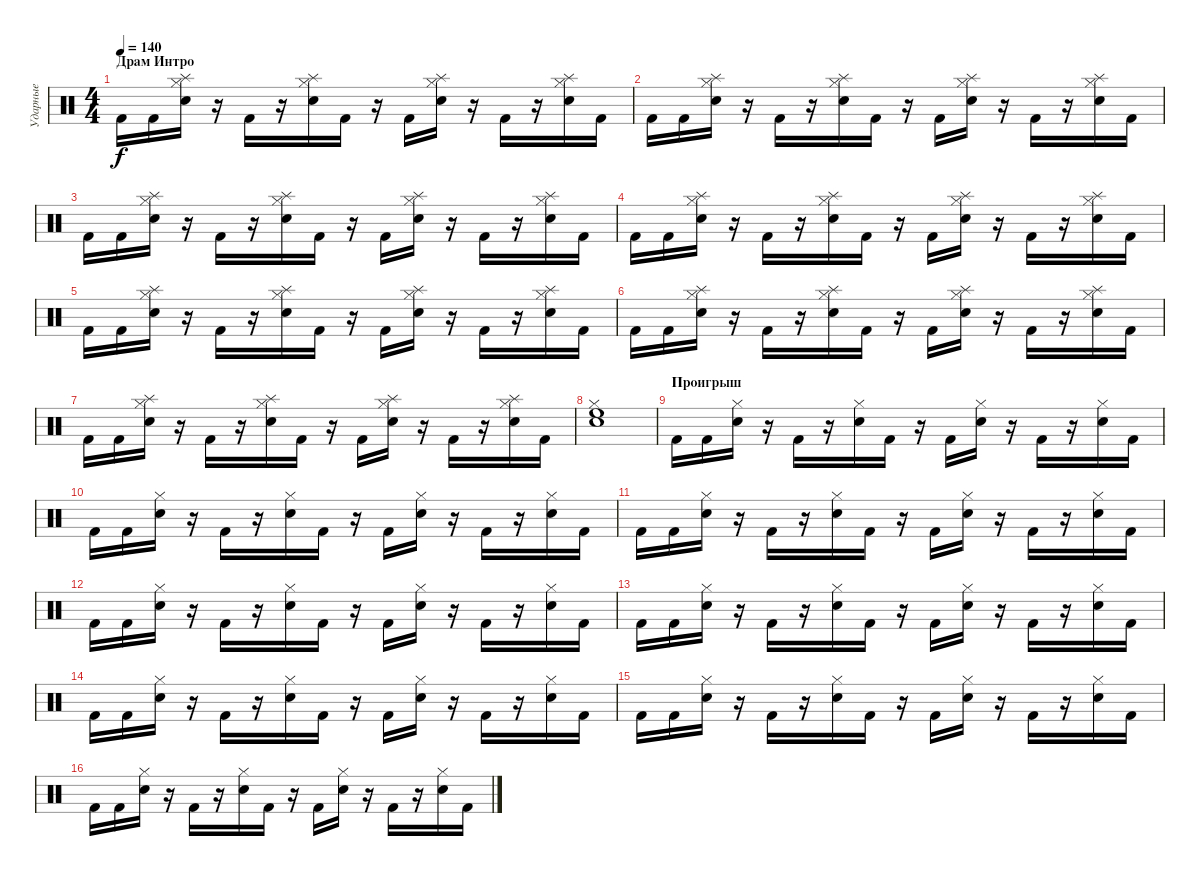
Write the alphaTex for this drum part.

\track ("Ударные" "Ударные") {instrument percussion}
\staff {score}
\articulation defaults
\ts (4 4)
\section ("" "Драм Интро")
\tempo 140
\clef neutral
\ks c "Kick (hit) 2".16{dy f volume 14} "Kick (hit) 2".16
("Snare (hit) 2" "Hi-Hat (closed)" "Splash (hit)").16 r.16 "Kick (hit) 2".16 r.16 ("Snare (hit) 2" "Hi-Hat (closed)" "Splash (hit)").16 "Kick (hit) 2".16 r.16 "Kick (hit) 2".16 ("Snare (hit) 2" "Hi-Hat (closed)" "Splash (hit)").16 r.16 "Kick (hit) 2".16 r.16 ("Snare (hit) 2" "Hi-Hat (closed)" "Splash (hit)").16 "Kick (hit) 2".16 |
"Kick (hit) 2".16{volume 14} "Kick (hit) 2".16 ("Snare (hit) 2" "Hi-Hat (closed)" "Splash (hit)").16 r.16 "Kick (hit) 2".16 r.16 ("Snare (hit) 2" "Hi-Hat (closed)" "Splash (hit)").16 "Kick (hit) 2".16 r.16 "Kick (hit) 2".16 ("Snare (hit) 2" "Hi-Hat (closed)" "Splash (hit)").16 r.16 "Kick (hit) 2".16 r.16 ("Snare (hit) 2" "Hi-Hat (closed)" "Splash (hit)").16 "Kick (hit) 2".16 |
"Kick (hit) 2".16{volume 14} "Kick (hit) 2".16 ("Snare (hit) 2" "Hi-Hat (closed)" "Splash (hit)").16 r.16 "Kick (hit) 2".16 r.16 ("Snare (hit) 2" "Hi-Hat (closed)" "Splash (hit)").16 "Kick (hit) 2".16 r.16 "Kick (hit) 2".16 ("Snare (hit) 2" "Hi-Hat (closed)" "Splash (hit)").16 r.16 "Kick (hit) 2".16 r.16 ("Snare (hit) 2" "Hi-Hat (closed)" "Splash (hit)").16 "Kick (hit) 2".16 |
"Kick (hit) 2".16{volume 14} "Kick (hit) 2".16 ("Snare (hit) 2" "Hi-Hat (closed)" "Splash (hit)").16 r.16 "Kick (hit) 2".16 r.16 ("Snare (hit) 2" "Hi-Hat (closed)" "Splash (hit)").16 "Kick (hit) 2".16 r.16 "Kick (hit) 2".16 ("Snare (hit) 2" "Hi-Hat (closed)" "Splash (hit)").16 r.16 "Kick (hit) 2".16 r.16 ("Snare (hit) 2" "Hi-Hat (closed)" "Splash (hit)").16 "Kick (hit) 2".16 |
"Kick (hit) 2".16{volume 14} "Kick (hit) 2".16 ("Snare (hit) 2" "Hi-Hat (closed)" "Splash (hit)").16 r.16 "Kick (hit) 2".16 r.16 ("Snare (hit) 2" "Hi-Hat (closed)" "Splash (hit)").16 "Kick (hit) 2".16 r.16 "Kick (hit) 2".16 ("Snare (hit) 2" "Hi-Hat (closed)" "Splash (hit)").16 r.16 "Kick (hit) 2".16 r.16 ("Snare (hit) 2" "Hi-Hat (closed)" "Splash (hit)").16 "Kick (hit) 2".16 |
"Kick (hit) 2".16{volume 14} "Kick (hit) 2".16 ("Snare (hit) 2" "Hi-Hat (closed)" "Splash (hit)").16 r.16 "Kick (hit) 2".16 r.16 ("Snare (hit) 2" "Hi-Hat (closed)" "Splash (hit)").16 "Kick (hit) 2".16 r.16 "Kick (hit) 2".16 ("Snare (hit) 2" "Hi-Hat (closed)" "Splash (hit)").16 r.16 "Kick (hit) 2".16 r.16 ("Snare (hit) 2" "Hi-Hat (closed)" "Splash (hit)").16 "Kick (hit) 2".16 |
"Kick (hit) 2".16{volume 14} "Kick (hit) 2".16 ("Snare (hit) 2" "Hi-Hat (closed)" "Splash (hit)").16 r.16 "Kick (hit) 2".16 r.16 ("Snare (hit) 2" "Hi-Hat (closed)" "Splash (hit)").16 "Kick (hit) 2".16 r.16 "Kick (hit) 2".16 ("Snare (hit) 2" "Hi-Hat (closed)" "Splash (hit)").16 r.16 "Kick (hit) 2".16 r.16 ("Snare (hit) 2" "Hi-Hat (closed)" "Splash (hit)").16 "Kick (hit) 2".16 |
("High Floor Tom (hit)" "Snare (hit) 2" "Hi-Hat (closed)").1 |
\section ("" "Проигрыш")
"Kick (hit) 2".16{volume 16} "Kick (hit) 2".16 ("Snare (hit) 2" "Hi-Hat (closed)").16 r.16 "Kick (hit) 2".16 r.16 ("Snare (hit) 2" "Hi-Hat (closed)").16 "Kick (hit) 2".16 r.16 "Kick (hit) 2".16 ("Snare (hit) 2" "Hi-Hat (closed)").16 r.16 "Kick (hit) 2".16 r.16 ("Snare (hit) 2" "Hi-Hat (closed)").16 "Kick (hit) 2".16 |
"Kick (hit) 2".16 "Kick (hit) 2".16 ("Snare (hit) 2" "Hi-Hat (closed)").16 r.16 "Kick (hit) 2".16 r.16 ("Snare (hit) 2" "Hi-Hat (closed)").16 "Kick (hit) 2".16 r.16 "Kick (hit) 2".16 ("Snare (hit) 2" "Hi-Hat (closed)").16 r.16 "Kick (hit) 2".16 r.16 ("Snare (hit) 2" "Hi-Hat (closed)").16 "Kick (hit) 2".16 |
"Kick (hit) 2".16 "Kick (hit) 2".16 ("Snare (hit) 2" "Hi-Hat (closed)").16 r.16 "Kick (hit) 2".16 r.16 ("Snare (hit) 2" "Hi-Hat (closed)").16 "Kick (hit) 2".16 r.16 "Kick (hit) 2".16 ("Snare (hit) 2" "Hi-Hat (closed)").16 r.16 "Kick (hit) 2".16 r.16 ("Snare (hit) 2" "Hi-Hat (closed)").16 "Kick (hit) 2".16 |
"Kick (hit) 2".16 "Kick (hit) 2".16 ("Snare (hit) 2" "Hi-Hat (closed)").16 r.16 "Kick (hit) 2".16 r.16 ("Snare (hit) 2" "Hi-Hat (closed)").16 "Kick (hit) 2".16 r.16 "Kick (hit) 2".16 ("Snare (hit) 2" "Hi-Hat (closed)").16 r.16 "Kick (hit) 2".16 r.16 ("Snare (hit) 2" "Hi-Hat (closed)").16 "Kick (hit) 2".16 |
"Kick (hit) 2".16 "Kick (hit) 2".16 ("Snare (hit) 2" "Hi-Hat (closed)").16 r.16 "Kick (hit) 2".16 r.16 ("Snare (hit) 2" "Hi-Hat (closed)").16 "Kick (hit) 2".16 r.16 "Kick (hit) 2".16 ("Snare (hit) 2" "Hi-Hat (closed)").16 r.16 "Kick (hit) 2".16 r.16 ("Snare (hit) 2" "Hi-Hat (closed)").16 "Kick (hit) 2".16 |
"Kick (hit) 2".16 "Kick (hit) 2".16 ("Snare (hit) 2" "Hi-Hat (closed)").16 r.16 "Kick (hit) 2".16 r.16 ("Snare (hit) 2" "Hi-Hat (closed)").16 "Kick (hit) 2".16 r.16 "Kick (hit) 2".16 ("Snare (hit) 2" "Hi-Hat (closed)").16 r.16 "Kick (hit) 2".16 r.16 ("Snare (hit) 2" "Hi-Hat (closed)").16 "Kick (hit) 2".16 |
"Kick (hit) 2".16 "Kick (hit) 2".16 ("Snare (hit) 2" "Hi-Hat (closed)").16 r.16 "Kick (hit) 2".16 r.16 ("Snare (hit) 2" "Hi-Hat (closed)").16 "Kick (hit) 2".16 r.16 "Kick (hit) 2".16 ("Snare (hit) 2" "Hi-Hat (closed)").16 r.16 "Kick (hit) 2".16 r.16 ("Snare (hit) 2" "Hi-Hat (closed)").16 "Kick (hit) 2".16 |
"Kick (hit) 2".16 "Kick (hit) 2".16 ("Snare (hit) 2" "Hi-Hat (closed)").16 r.16 "Kick (hit) 2".16 r.16 ("Snare (hit) 2" "Hi-Hat (closed)").16 "Kick (hit) 2".16 r.16 "Kick (hit) 2".16 ("Snare (hit) 2" "Hi-Hat (closed)").16 r.16 "Kick (hit) 2".16 r.16 ("Snare (hit) 2" "Hi-Hat (closed)").16 "Kick (hit) 2".16
